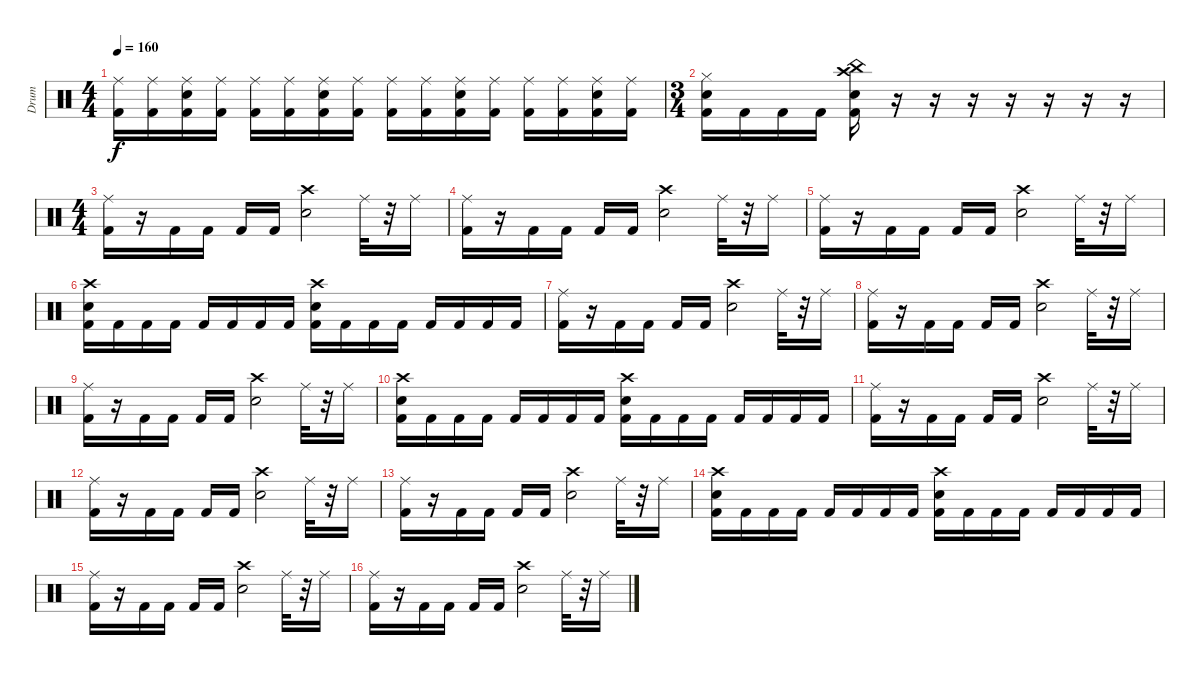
\track ("Drum" "Drum") {instrument percussion}
\staff {score}
\articulation defaults
\ts (4 4)
\tempo 160
\clef neutral
\ks c
("Kick (hit) 2" "Ride (middle)").16{dy f} ("Kick (hit) 2" "Ride (middle)").16 ("Kick (hit) 2" "Ride (middle)" "Electric Snare (hit)").16 ("Kick (hit) 2" "Ride (middle)").16 ("Kick (hit) 2" "Ride (middle)").16 ("Kick (hit) 2" "Ride (middle)").16 ("Kick (hit) 2" "Ride (middle)" "Electric Snare (hit)").16 ("Kick (hit) 2" "Ride (middle)").16 ("Kick (hit) 2" "Ride (middle)").16 ("Kick (hit) 2" "Ride (middle)").16 ("Kick (hit) 2" "Ride (middle)" "Electric Snare (hit)").16 ("Kick (hit) 2" "Ride (middle)").16 ("Kick (hit) 2" "Ride (middle)").16 ("Kick (hit) 2" "Ride (middle)").16 ("Kick (hit) 2" "Ride (middle)" "Electric Snare (hit)").16 ("Kick (hit) 2" "Ride (middle)").16 |
\ts (3 4)
("Kick (hit) 2" "Hi-Hat (closed)" "Electric Snare (hit)").16 "Kick (hit) 2".16 "Kick (hit) 2".16 "Kick (hit) 2".16 ("Kick (hit) 2" "China (hit)" "Crash high (hit)" "Electric Snare (hit)").16 r.16 r.16 r.16 r.16 r.16 r.16 r.16 |
\ts (4 4)
("Kick (hit) 2" "Ride (middle)").16 r.16 "Kick (hit) 2".16 "Kick (hit) 2".16 "Kick (hit) 2".16 "Kick (hit) 2".16 ("Crash high (hit)" "Electric Snare (hit)").2 "Ride (middle)".32 r.32 "Ride (middle)".16 |
("Kick (hit) 2" "Ride (middle)").16 r.16 "Kick (hit) 2".16 "Kick (hit) 2".16 "Kick (hit) 2".16 "Kick (hit) 2".16 ("Crash high (hit)" "Electric Snare (hit)").2 "Ride (middle)".32 r.32 "Ride (middle)".16 |
("Kick (hit) 2" "Ride (middle)").16 r.16 "Kick (hit) 2".16 "Kick (hit) 2".16 "Kick (hit) 2".16 "Kick (hit) 2".16 ("Crash high (hit)" "Electric Snare (hit)").2 "Ride (middle)".32 r.32 "Ride (middle)".16 |
("Kick (hit) 2" "Crash high (hit)" "Electric Snare (hit)").16 "Kick (hit) 2".16 "Kick (hit) 2".16 "Kick (hit) 2".16 "Kick (hit) 2".16 "Kick (hit) 2".16 "Kick (hit) 2".16 "Kick (hit) 2".16 ("Kick (hit) 2" "Crash high (hit)" "Electric Snare (hit)").16 "Kick (hit) 2".16 "Kick (hit) 2".16 "Kick (hit) 2".16 "Kick (hit) 2".16 "Kick (hit) 2".16 "Kick (hit) 2".16 "Kick (hit) 2".16 |
("Kick (hit) 2" "Ride (middle)").16 r.16 "Kick (hit) 2".16 "Kick (hit) 2".16 "Kick (hit) 2".16 "Kick (hit) 2".16 ("Crash high (hit)" "Electric Snare (hit)").2 "Ride (middle)".32 r.32 "Ride (middle)".16 |
("Kick (hit) 2" "Ride (middle)").16 r.16 "Kick (hit) 2".16 "Kick (hit) 2".16 "Kick (hit) 2".16 "Kick (hit) 2".16 ("Crash high (hit)" "Electric Snare (hit)").2 "Ride (middle)".32 r.32 "Ride (middle)".16 |
("Kick (hit) 2" "Ride (middle)").16 r.16 "Kick (hit) 2".16 "Kick (hit) 2".16 "Kick (hit) 2".16 "Kick (hit) 2".16 ("Crash high (hit)" "Electric Snare (hit)").2 "Ride (middle)".32 r.32 "Ride (middle)".16 |
("Kick (hit) 2" "Crash high (hit)" "Electric Snare (hit)").16 "Kick (hit) 2".16 "Kick (hit) 2".16 "Kick (hit) 2".16 "Kick (hit) 2".16 "Kick (hit) 2".16 "Kick (hit) 2".16 "Kick (hit) 2".16 ("Kick (hit) 2" "Crash high (hit)" "Electric Snare (hit)").16 "Kick (hit) 2".16 "Kick (hit) 2".16 "Kick (hit) 2".16 "Kick (hit) 2".16 "Kick (hit) 2".16 "Kick (hit) 2".16 "Kick (hit) 2".16 |
("Kick (hit) 2" "Ride (middle)").16 r.16 "Kick (hit) 2".16 "Kick (hit) 2".16 "Kick (hit) 2".16 "Kick (hit) 2".16 ("Crash high (hit)" "Electric Snare (hit)").2 "Ride (middle)".32 r.32 "Ride (middle)".16 |
("Kick (hit) 2" "Ride (middle)").16 r.16 "Kick (hit) 2".16 "Kick (hit) 2".16 "Kick (hit) 2".16 "Kick (hit) 2".16 ("Crash high (hit)" "Electric Snare (hit)").2 "Ride (middle)".32 r.32 "Ride (middle)".16 |
("Kick (hit) 2" "Ride (middle)").16 r.16 "Kick (hit) 2".16 "Kick (hit) 2".16 "Kick (hit) 2".16 "Kick (hit) 2".16 ("Crash high (hit)" "Electric Snare (hit)").2 "Ride (middle)".32 r.32 "Ride (middle)".16 |
("Kick (hit) 2" "Crash high (hit)" "Electric Snare (hit)").16 "Kick (hit) 2".16 "Kick (hit) 2".16 "Kick (hit) 2".16 "Kick (hit) 2".16 "Kick (hit) 2".16 "Kick (hit) 2".16 "Kick (hit) 2".16 ("Kick (hit) 2" "Crash high (hit)" "Electric Snare (hit)").16 "Kick (hit) 2".16 "Kick (hit) 2".16 "Kick (hit) 2".16 "Kick (hit) 2".16 "Kick (hit) 2".16 "Kick (hit) 2".16 "Kick (hit) 2".16 |
("Kick (hit) 2" "Ride (middle)").16 r.16 "Kick (hit) 2".16 "Kick (hit) 2".16 "Kick (hit) 2".16 "Kick (hit) 2".16 ("Crash high (hit)" "Electric Snare (hit)").2 "Ride (middle)".32 r.32 "Ride (middle)".16 |
("Kick (hit) 2" "Ride (middle)").16 r.16 "Kick (hit) 2".16 "Kick (hit) 2".16 "Kick (hit) 2".16 "Kick (hit) 2".16 ("Crash high (hit)" "Electric Snare (hit)").2 "Ride (middle)".32 r.32 "Ride (middle)".16
